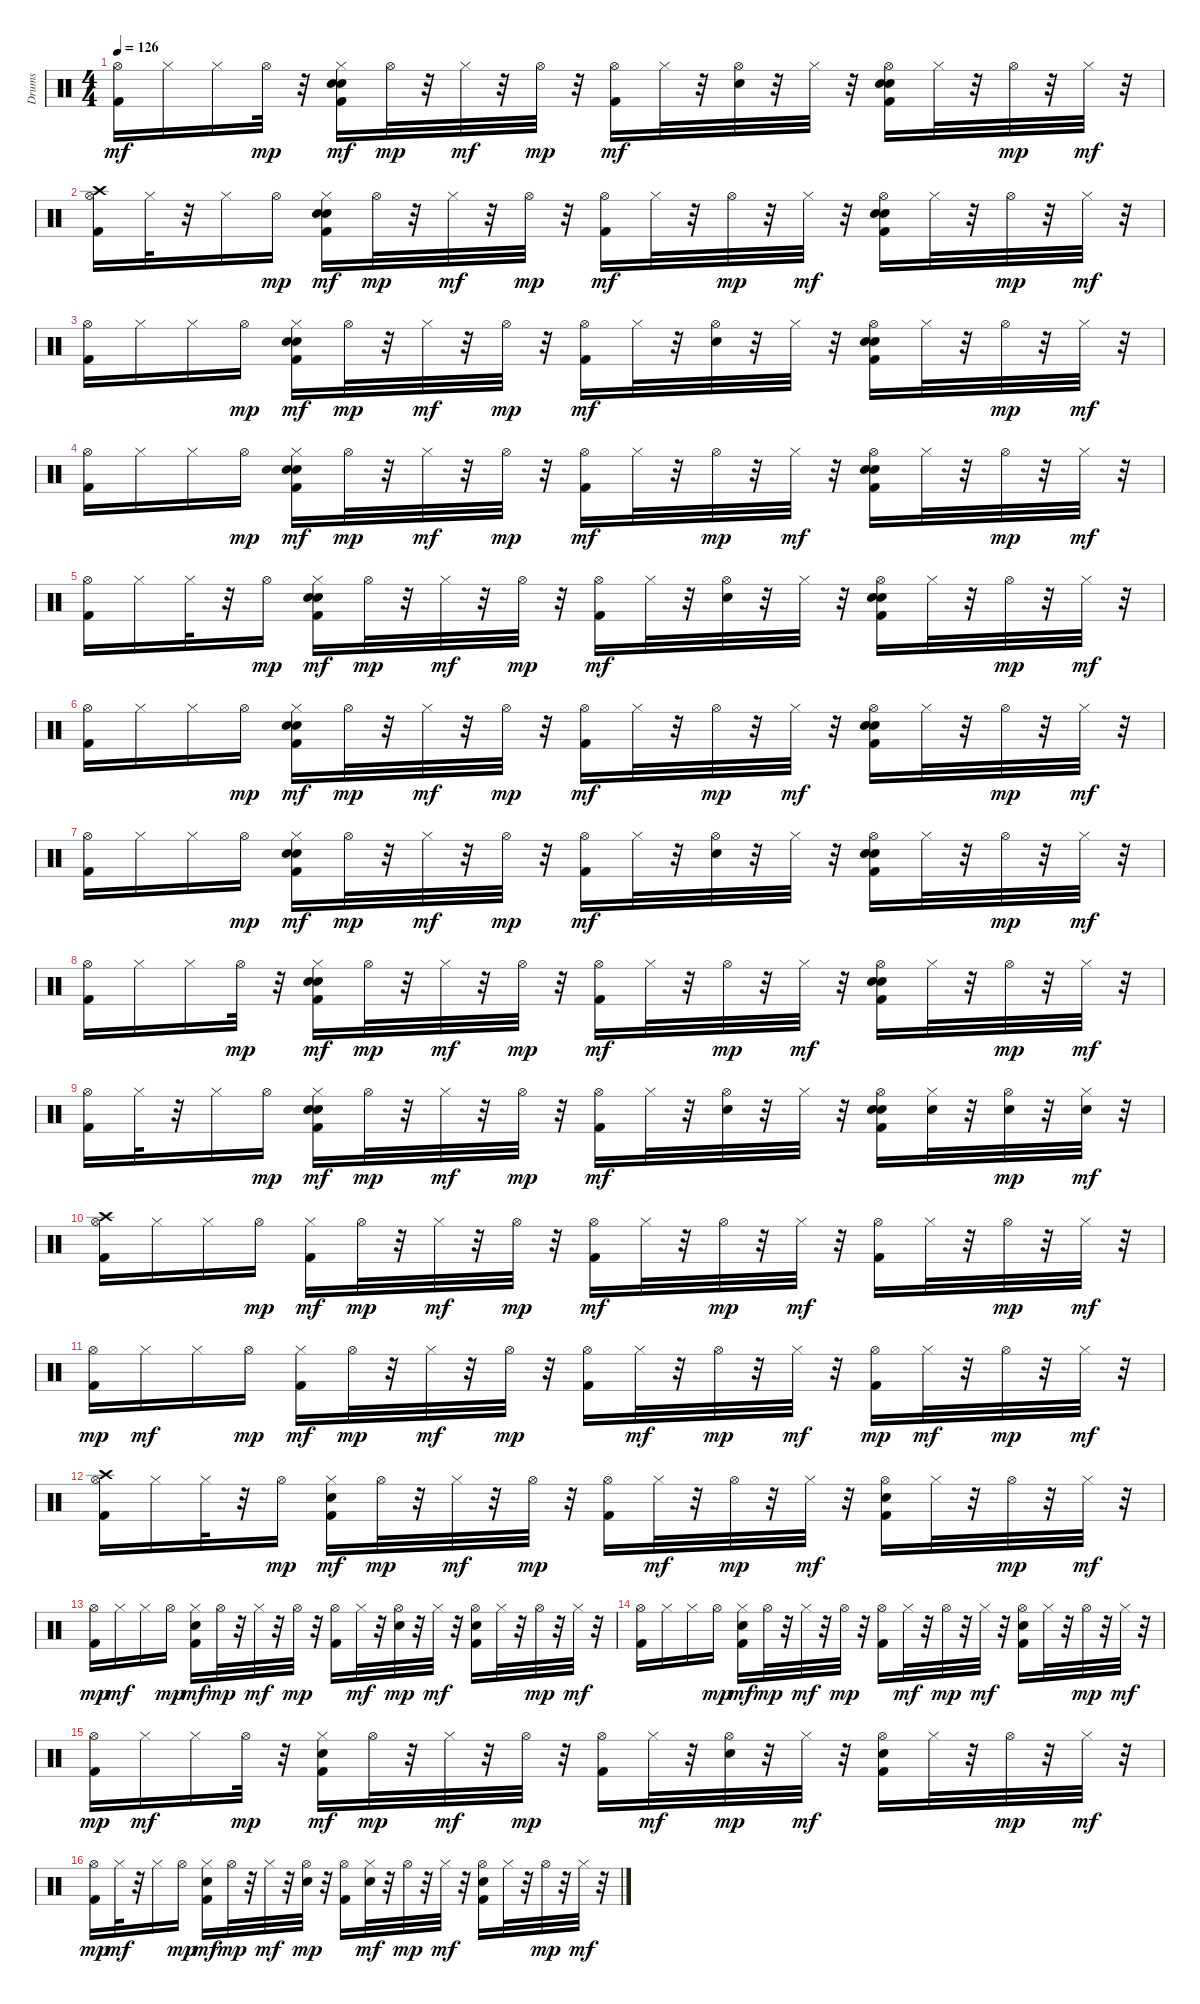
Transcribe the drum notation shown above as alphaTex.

\track ("Drums" "Drums") {instrument percussion}
\staff {score}
\articulation defaults
\ts (4 4)
\tempo 126
\clef neutral
\ks c
("Hi-Hat (open)" "Kick (hit) 2").16{dy mf} "Hi-Hat (closed)".16 "Hi-Hat (closed)".16 "Hi-Hat (open)".32{dy mp} r.32 ("Hi-Hat (closed)" "Electric Snare (hit)" "Hand Clap (hit)" "Kick (hit) 2").16{dy mf} "Hi-Hat (open)".32{dy mp} r.32 "Hi-Hat (closed)".32{dy mf} r.32 "Hi-Hat (open)".32{dy mp} r.32 ("Hi-Hat (open)" "Kick (hit) 2").16{dy mf} "Hi-Hat (closed)".32 r.32 ("Hi-Hat (open)" "Hand Clap (hit)").32 r.32 "Hi-Hat (closed)".32 r.32 ("Hi-Hat (open)" "Electric Snare (hit)" "Hand Clap (hit)" "Kick (hit) 2").16 "Hi-Hat (closed)".32 r.32 "Hi-Hat (open)".32{dy mp} r.32 "Hi-Hat (closed)".32{dy mf} r.32 |
("Hi-Hat (open)" "Crash high (hit)" "Kick (hit) 2").16 "Hi-Hat (closed)".32 r.32 "Hi-Hat (closed)".16 "Hi-Hat (open)".16{dy mp} ("Hi-Hat (closed)" "Electric Snare (hit)" "Hand Clap (hit)" "Kick (hit) 2").16{dy mf} "Hi-Hat (open)".32{dy mp} r.32 "Hi-Hat (closed)".32{dy mf} r.32 "Hi-Hat (open)".32{dy mp} r.32 ("Hi-Hat (open)" "Kick (hit) 2").16{dy mf} "Hi-Hat (closed)".32 r.32 "Hi-Hat (open)".32{dy mp} r.32 "Hi-Hat (closed)".32{dy mf} r.32 ("Hi-Hat (open)" "Electric Snare (hit)" "Hand Clap (hit)" "Kick (hit) 2").16 "Hi-Hat (closed)".32 r.32 "Hi-Hat (open)".32{dy mp} r.32 "Hi-Hat (closed)".32{dy mf} r.32 |
("Hi-Hat (open)" "Kick (hit) 2").16 "Hi-Hat (closed)".16 "Hi-Hat (closed)".16 "Hi-Hat (open)".16{dy mp} ("Hi-Hat (closed)" "Electric Snare (hit)" "Hand Clap (hit)" "Kick (hit) 2").16{dy mf} "Hi-Hat (open)".32{dy mp} r.32 "Hi-Hat (closed)".32{dy mf} r.32 "Hi-Hat (open)".32{dy mp} r.32 ("Hi-Hat (open)" "Kick (hit) 2").16{dy mf} "Hi-Hat (closed)".32 r.32 ("Hi-Hat (open)" "Hand Clap (hit)").32 r.32 "Hi-Hat (closed)".32 r.32 ("Hi-Hat (open)" "Electric Snare (hit)" "Hand Clap (hit)" "Kick (hit) 2").16 "Hi-Hat (closed)".32 r.32 "Hi-Hat (open)".32{dy mp} r.32 "Hi-Hat (closed)".32{dy mf} r.32 |
("Hi-Hat (open)" "Kick (hit) 2").16 "Hi-Hat (closed)".16 "Hi-Hat (closed)".16 "Hi-Hat (open)".16{dy mp} ("Hi-Hat (closed)" "Electric Snare (hit)" "Hand Clap (hit)" "Kick (hit) 2").16{dy mf} "Hi-Hat (open)".32{dy mp} r.32 "Hi-Hat (closed)".32{dy mf} r.32 "Hi-Hat (open)".32{dy mp} r.32 ("Hi-Hat (open)" "Kick (hit) 2").16{dy mf} "Hi-Hat (closed)".32 r.32 "Hi-Hat (open)".32{dy mp} r.32 "Hi-Hat (closed)".32{dy mf} r.32 ("Hi-Hat (open)" "Electric Snare (hit)" "Hand Clap (hit)" "Kick (hit) 2").16 "Hi-Hat (closed)".32 r.32 "Hi-Hat (open)".32{dy mp} r.32 "Hi-Hat (closed)".32{dy mf} r.32 |
("Hi-Hat (open)" "Kick (hit) 2").16 "Hi-Hat (closed)".16 "Hi-Hat (closed)".32 r.32 "Hi-Hat (open)".16{dy mp} ("Hi-Hat (closed)" "Electric Snare (hit)" "Hand Clap (hit)" "Kick (hit) 2").16{dy mf} "Hi-Hat (open)".32{dy mp} r.32 "Hi-Hat (closed)".32{dy mf} r.32 "Hi-Hat (open)".32{dy mp} r.32 ("Hi-Hat (open)" "Kick (hit) 2").16{dy mf} "Hi-Hat (closed)".32 r.32 ("Hi-Hat (open)" "Hand Clap (hit)").32 r.32 "Hi-Hat (closed)".32 r.32 ("Hi-Hat (open)" "Electric Snare (hit)" "Hand Clap (hit)" "Kick (hit) 2").16 "Hi-Hat (closed)".32 r.32 "Hi-Hat (open)".32{dy mp} r.32 "Hi-Hat (closed)".32{dy mf} r.32 |
("Hi-Hat (open)" "Kick (hit) 2").16 "Hi-Hat (closed)".16 "Hi-Hat (closed)".16 "Hi-Hat (open)".16{dy mp} ("Hi-Hat (closed)" "Electric Snare (hit)" "Hand Clap (hit)" "Kick (hit) 2").16{dy mf} "Hi-Hat (open)".32{dy mp} r.32 "Hi-Hat (closed)".32{dy mf} r.32 "Hi-Hat (open)".32{dy mp} r.32 ("Hi-Hat (open)" "Kick (hit) 2").16{dy mf} "Hi-Hat (closed)".32 r.32 "Hi-Hat (open)".32{dy mp} r.32 "Hi-Hat (closed)".32{dy mf} r.32 ("Hi-Hat (open)" "Electric Snare (hit)" "Hand Clap (hit)" "Kick (hit) 2").16 "Hi-Hat (closed)".32 r.32 "Hi-Hat (open)".32{dy mp} r.32 "Hi-Hat (closed)".32{dy mf} r.32 |
("Hi-Hat (open)" "Kick (hit) 2").16 "Hi-Hat (closed)".16 "Hi-Hat (closed)".16 "Hi-Hat (open)".16{dy mp} ("Hi-Hat (closed)" "Electric Snare (hit)" "Hand Clap (hit)" "Kick (hit) 2").16{dy mf} "Hi-Hat (open)".32{dy mp} r.32 "Hi-Hat (closed)".32{dy mf} r.32 "Hi-Hat (open)".32{dy mp} r.32 ("Hi-Hat (open)" "Kick (hit) 2").16{dy mf} "Hi-Hat (closed)".32 r.32 ("Hi-Hat (open)" "Hand Clap (hit)").32 r.32 "Hi-Hat (closed)".32 r.32 ("Hi-Hat (open)" "Electric Snare (hit)" "Hand Clap (hit)" "Kick (hit) 2").16 "Hi-Hat (closed)".32 r.32 "Hi-Hat (open)".32{dy mp} r.32 "Hi-Hat (closed)".32{dy mf} r.32 |
("Hi-Hat (open)" "Kick (hit) 2").16 "Hi-Hat (closed)".16 "Hi-Hat (closed)".16 "Hi-Hat (open)".32{dy mp} r.32 ("Hi-Hat (closed)" "Electric Snare (hit)" "Hand Clap (hit)" "Kick (hit) 2").16{dy mf} "Hi-Hat (open)".32{dy mp} r.32 "Hi-Hat (closed)".32{dy mf} r.32 "Hi-Hat (open)".32{dy mp} r.32 ("Hi-Hat (open)" "Kick (hit) 2").16{dy mf} "Hi-Hat (closed)".32 r.32 "Hi-Hat (open)".32{dy mp} r.32 "Hi-Hat (closed)".32{dy mf} r.32 ("Hi-Hat (open)" "Electric Snare (hit)" "Hand Clap (hit)" "Kick (hit) 2").16 "Hi-Hat (closed)".32 r.32 "Hi-Hat (open)".32{dy mp} r.32 "Hi-Hat (closed)".32{dy mf} r.32 |
("Hi-Hat (open)" "Kick (hit) 2").16 "Hi-Hat (closed)".32 r.32 "Hi-Hat (closed)".16 "Hi-Hat (open)".16{dy mp} ("Electric Snare (hit)" "Hi-Hat (closed)" "Hand Clap (hit)" "Kick (hit) 2").16{dy mf} "Hi-Hat (open)".32{dy mp} r.32 "Hi-Hat (closed)".32{dy mf} r.32 "Hi-Hat (open)".32{dy mp} r.32 ("Hi-Hat (open)" "Kick (hit) 2").16{dy mf} "Hi-Hat (closed)".32 r.32 ("Hi-Hat (open)" "Hand Clap (hit)").32 r.32 "Hi-Hat (closed)".32 r.32 ("Snare (hit) 2" "Hi-Hat (open)" "Hand Clap (hit)" "Kick (hit) 2").16 ("Snare (hit) 2" "Hi-Hat (closed)").32 r.32 ("Snare (hit) 2" "Hi-Hat (open)").32{dy mp} r.32 ("Snare (hit) 2" "Hi-Hat (closed)").32{dy mf} r.32 |
("Hi-Hat (open)" "Crash high (hit)" "Kick (hit) 2").16 "Hi-Hat (closed)".16 "Hi-Hat (closed)".16 "Hi-Hat (open)".16{dy mp} ("Hi-Hat (closed)" "Kick (hit) 2").16{dy mf} "Hi-Hat (open)".32{dy mp} r.32 "Hi-Hat (closed)".32{dy mf} r.32 "Hi-Hat (open)".32{dy mp} r.32 ("Hi-Hat (open)" "Kick (hit) 2").16{dy mf} "Hi-Hat (closed)".32 r.32 "Hi-Hat (open)".32{dy mp} r.32 "Hi-Hat (closed)".32{dy mf} r.32 ("Hi-Hat (open)" "Kick (hit) 2").16 "Hi-Hat (closed)".32 r.32 "Hi-Hat (open)".32{dy mp} r.32 "Hi-Hat (closed)".32{dy mf} r.32 |
("Kick (hit) 2" "Hi-Hat (open)").16{dy mp} "Hi-Hat (closed)".16{dy mf} "Hi-Hat (closed)".16 "Hi-Hat (open)".16{dy mp} ("Kick (hit) 2" "Hi-Hat (closed)").16{dy mf} "Hi-Hat (open)".32{dy mp} r.32 "Hi-Hat (closed)".32{dy mf} r.32 "Hi-Hat (open)".32{dy mp} r.32 ("Kick (hit) 2" "Hi-Hat (open)").16 "Hi-Hat (closed)".32{dy mf} r.32 "Hi-Hat (open)".32{dy mp} r.32 "Hi-Hat (closed)".32{dy mf} r.32 ("Kick (hit) 2" "Hi-Hat (open)").16{dy mp} "Hi-Hat (closed)".32{dy mf} r.32 "Hi-Hat (open)".32{dy mp} r.32 "Hi-Hat (closed)".32{dy mf} r.32 |
("Kick (hit) 2" "Hi-Hat (open)" "Crash high (hit)").16 "Hi-Hat (closed)".16 "Hi-Hat (closed)".32 r.32 "Hi-Hat (open)".16{dy mp} ("Kick (hit) 2" "Hi-Hat (closed)" "Hand Clap (hit)").16{dy mf} "Hi-Hat (open)".32{dy mp} r.32 "Hi-Hat (closed)".32{dy mf} r.32 "Hi-Hat (open)".32{dy mp} r.32 ("Kick (hit) 2" "Hi-Hat (open)").16 "Hi-Hat (closed)".32{dy mf} r.32 "Hi-Hat (open)".32{dy mp} r.32 "Hi-Hat (closed)".32{dy mf} r.32 ("Kick (hit) 2" "Hi-Hat (open)" "Hand Clap (hit)").16 "Hi-Hat (closed)".32 r.32 "Hi-Hat (open)".32{dy mp} r.32 "Hi-Hat (closed)".32{dy mf} r.32 |
("Kick (hit) 2" "Hi-Hat (open)").16{dy mp} "Hi-Hat (closed)".16{dy mf} "Hi-Hat (closed)".16 "Hi-Hat (open)".16{dy mp} ("Kick (hit) 2" "Hi-Hat (closed)" "Hand Clap (hit)").16{dy mf} "Hi-Hat (open)".32{dy mp} r.32 "Hi-Hat (closed)".32{dy mf} r.32 "Hi-Hat (open)".32{dy mp} r.32 ("Kick (hit) 2" "Hi-Hat (open)").16 "Hi-Hat (closed)".32{dy mf} r.32 ("Hand Clap (hit)" "Hi-Hat (open)").32{dy mp} r.32 "Hi-Hat (closed)".32{dy mf} r.32 ("Kick (hit) 2" "Hi-Hat (open)" "Hand Clap (hit)").16 "Hi-Hat (closed)".32 r.32 "Hi-Hat (open)".32{dy mp} r.32 "Hi-Hat (closed)".32{dy mf} r.32 |
("Hi-Hat (open)" "Kick (hit) 2").16 "Hi-Hat (closed)".16 "Hi-Hat (closed)".16 "Hi-Hat (open)".16{dy mp} ("Kick (hit) 2" "Hi-Hat (closed)" "Hand Clap (hit)").16{dy mf} "Hi-Hat (open)".32{dy mp} r.32 "Hi-Hat (closed)".32{dy mf} r.32 "Hi-Hat (open)".32{dy mp} r.32 ("Kick (hit) 2" "Hi-Hat (open)").16 "Hi-Hat (closed)".32{dy mf} r.32 "Hi-Hat (open)".32{dy mp} r.32 "Hi-Hat (closed)".32{dy mf} r.32 ("Kick (hit) 2" "Hi-Hat (open)" "Hand Clap (hit)").16 "Hi-Hat (closed)".32 r.32 "Hi-Hat (open)".32{dy mp} r.32 "Hi-Hat (closed)".32{dy mf} r.32 |
("Kick (hit) 2" "Hi-Hat (open)").16{dy mp} "Hi-Hat (closed)".16{dy mf} "Hi-Hat (closed)".16 "Hi-Hat (open)".32{dy mp} r.32 ("Kick (hit) 2" "Hi-Hat (closed)" "Hand Clap (hit)").16{dy mf} "Hi-Hat (open)".32{dy mp} r.32 "Hi-Hat (closed)".32{dy mf} r.32 "Hi-Hat (open)".32{dy mp} r.32 ("Kick (hit) 2" "Hi-Hat (open)").16 "Hi-Hat (closed)".32{dy mf} r.32 ("Hand Clap (hit)" "Hi-Hat (open)").32{dy mp} r.32 "Hi-Hat (closed)".32{dy mf} r.32 ("Kick (hit) 2" "Hi-Hat (open)" "Hand Clap (hit)").16 "Hi-Hat (closed)".32 r.32 "Hi-Hat (open)".32{dy mp} r.32 "Hi-Hat (closed)".32{dy mf} r.32 |
("Kick (hit) 2" "Hi-Hat (open)").16{dy mp} "Hi-Hat (closed)".32{dy mf} r.32 "Hi-Hat (closed)".16 "Hi-Hat (open)".16{dy mp} ("Kick (hit) 2" "Hi-Hat (closed)" "Hand Clap (hit)").16{dy mf} "Hi-Hat (open)".32{dy mp} r.32 "Hi-Hat (closed)".32{dy mf} r.32 ("Snare (hit) 2" "Hi-Hat (open)").32{dy mp} r.32 ("Kick (hit) 2" "Hi-Hat (open)").16 ("Snare (hit) 2" "Hi-Hat (closed)").32{dy mf} r.32 "Hi-Hat (open)".32{dy mp} r.32 "Hi-Hat (closed)".32{dy mf} r.32 ("Kick (hit) 2" "Hi-Hat (open)" "Hand Clap (hit)").16 "Hi-Hat (closed)".32 r.32 "Hi-Hat (open)".32{dy mp} r.32 "Hi-Hat (closed)".32{dy mf} r.32
